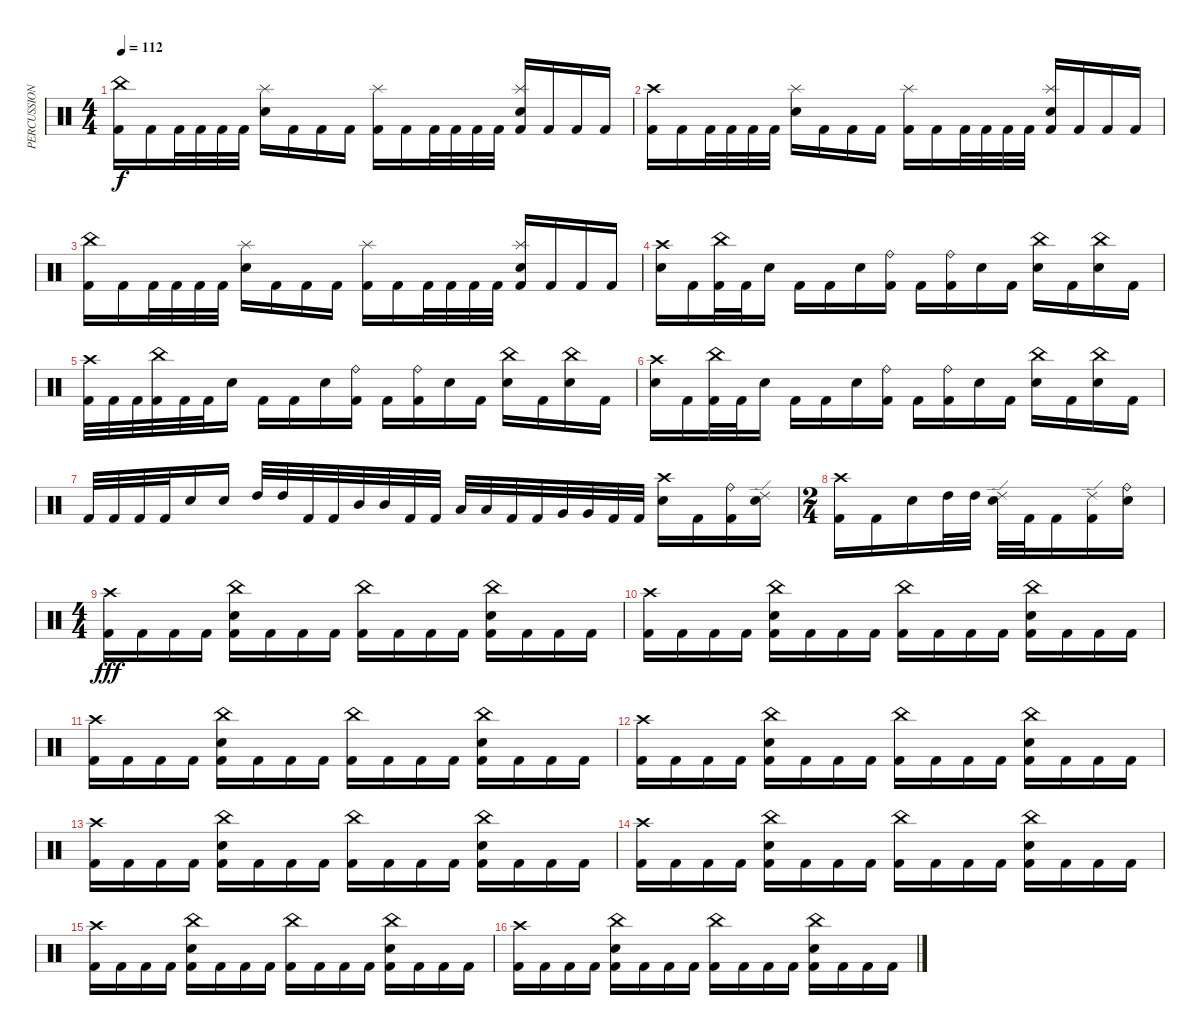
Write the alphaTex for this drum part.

\track ("PERCUSSION" "PERCUSSION") {instrument percussion}
\staff {score}
\articulation defaults
\ts (4 4)
\tempo 112
\clef neutral
\ks c
("China (hit)" "Kick (hit) 2").16{dy f} "Kick (hit) 2".16 "Kick (hit) 2".32 "Kick (hit) 2".32 "Kick (hit) 2".32 "Kick (hit) 2".32 ("Splash (hit)" "Electric Snare (hit)").16 "Kick (hit) 2".16 "Kick (hit) 2".16 "Kick (hit) 2".16 ("Splash (hit)" "Kick (hit) 2").16 "Kick (hit) 2".16 "Kick (hit) 2".32 "Kick (hit) 2".32 "Kick (hit) 2".32 "Kick (hit) 2".32 ("Splash (hit)" "Electric Snare (hit)" "Kick (hit) 2").16 "Kick (hit) 2".16 "Kick (hit) 2".16 "Kick (hit) 2".16 |
("Crash high (hit)" "Kick (hit) 2").16 "Kick (hit) 2".16 "Kick (hit) 2".32 "Kick (hit) 2".32 "Kick (hit) 2".32 "Kick (hit) 2".32 ("Splash (hit)" "Electric Snare (hit)").16 "Kick (hit) 2".16 "Kick (hit) 2".16 "Kick (hit) 2".16 ("Splash (hit)" "Kick (hit) 2").16 "Kick (hit) 2".16 "Kick (hit) 2".32 "Kick (hit) 2".32 "Kick (hit) 2".32 "Kick (hit) 2".32 ("Splash (hit)" "Electric Snare (hit)" "Kick (hit) 2").16 "Kick (hit) 2".16 "Kick (hit) 2".16 "Kick (hit) 2".16 |
("China (hit)" "Kick (hit) 2").16 "Kick (hit) 2".16 "Kick (hit) 2".32 "Kick (hit) 2".32 "Kick (hit) 2".32 "Kick (hit) 2".32 ("Splash (hit)" "Electric Snare (hit)").16 "Kick (hit) 2".16 "Kick (hit) 2".16 "Kick (hit) 2".16 ("Splash (hit)" "Kick (hit) 2").16 "Kick (hit) 2".16 "Kick (hit) 2".32 "Kick (hit) 2".32 "Kick (hit) 2".32 "Kick (hit) 2".32 ("Splash (hit)" "Electric Snare (hit)" "Kick (hit) 2").16 "Kick (hit) 2".16 "Kick (hit) 2".16 "Kick (hit) 2".16 |
("Crash high (hit)" "Electric Snare (hit)").16 "Kick (hit) 2".16 ("China (hit)" "Kick (hit) 2").32 "Kick (hit) 2".32 "Electric Snare (hit)".16 "Kick (hit) 2".16 "Kick (hit) 2".16 "Electric Snare (hit)".16 ("Ride (bell)" "Kick (hit) 2").16 "Kick (hit) 2".16 ("Ride (bell)" "Kick (hit) 2").16 "Electric Snare (hit)".16 "Kick (hit) 2".16 ("China (hit)" "Electric Snare (hit)").16 "Kick (hit) 2".16 ("China (hit)" "Electric Snare (hit)").16 "Kick (hit) 2".16 |
("Crash high (hit)" "Kick (hit) 2").32 "Kick (hit) 2".32 "Kick (hit) 2".32 ("China (hit)" "Kick (hit) 2").32 "Kick (hit) 2".32 "Kick (hit) 2".32 "Electric Snare (hit)".16 "Kick (hit) 2".16 "Kick (hit) 2".16 "Electric Snare (hit)".16 ("Ride (bell)" "Kick (hit) 2").16 "Kick (hit) 2".16 ("Ride (bell)" "Kick (hit) 2").16 "Electric Snare (hit)".16 "Kick (hit) 2".16 ("China (hit)" "Electric Snare (hit)").16 "Kick (hit) 2".16 ("China (hit)" "Electric Snare (hit)").16 "Kick (hit) 2".16 |
("Crash high (hit)" "Electric Snare (hit)").16 "Kick (hit) 2".16 ("China (hit)" "Kick (hit) 2").32 "Kick (hit) 2".32 "Electric Snare (hit)".16 "Kick (hit) 2".16 "Kick (hit) 2".16 "Electric Snare (hit)".16 ("Ride (bell)" "Kick (hit) 2").16 "Kick (hit) 2".16 ("Ride (bell)" "Kick (hit) 2").16 "Electric Snare (hit)".16 "Kick (hit) 2".16 ("China (hit)" "Electric Snare (hit)").16 "Kick (hit) 2".16 ("China (hit)" "Electric Snare (hit)").16 "Kick (hit) 2".16 |
"Kick (hit) 2".32 "Kick (hit) 2".32 "Kick (hit) 2".32 "Kick (hit) 2".32 "Electric Snare (hit)".16 "Electric Snare (hit)".16 "High Tom (hit)".32 "High Tom (hit)".32 "Kick (hit) 2".32 "Kick (hit) 2".32 "Mid Tom (hit)".32 "Mid Tom (hit)".32 "Kick (hit) 2".32 "Kick (hit) 2".32 "Low Tom (hit)".32 "Low Tom (hit)".32 "Kick (hit) 2".32 "Kick (hit) 2".32 "Very Low Tom (hit)".32 "Very Low Tom (hit)".32 "Kick (hit) 2".32 "Kick (hit) 2".32 ("Crash high (hit)" "Electric Snare (hit)").16 "Kick (hit) 2".16 ("Ride (bell)" "Kick (hit) 2").16 ("Ride (edge) 2" "Electric Snare (hit)").16 |
\ts (2 4)
("Crash high (hit)" "Kick (hit) 2").16 "Kick (hit) 2".16 "Electric Snare (hit)".16 "High Tom (hit)".32 "High Tom (hit)".32 ("Ride (edge) 2" "Electric Snare (hit)").32 "Kick (hit) 2".32 "Kick (hit) 2".16 ("Ride (edge) 2" "Kick (hit) 2").16 ("Ride (bell)" "Electric Snare (hit)").16 |
\ts (4 4)
("Crash high (hit)" "Kick (hit) 2").16{dy fff} "Kick (hit) 2".16 "Kick (hit) 2".16 "Kick (hit) 2".16 ("China (hit)" "Electric Snare (hit)" "Kick (hit) 2").16 "Kick (hit) 2".16 "Kick (hit) 2".16 "Kick (hit) 2".16 ("China (hit)" "Kick (hit) 2").16 "Kick (hit) 2".16 "Kick (hit) 2".16 "Kick (hit) 2".16 ("China (hit)" "Electric Snare (hit)" "Kick (hit) 2").16 "Kick (hit) 2".16 "Kick (hit) 2".16 "Kick (hit) 2".16 |
("Crash high (hit)" "Kick (hit) 2").16 "Kick (hit) 2".16 "Kick (hit) 2".16 "Kick (hit) 2".16 ("China (hit)" "Electric Snare (hit)" "Kick (hit) 2").16 "Kick (hit) 2".16 "Kick (hit) 2".16 "Kick (hit) 2".16 ("China (hit)" "Kick (hit) 2").16 "Kick (hit) 2".16 "Kick (hit) 2".16 "Kick (hit) 2".16 ("China (hit)" "Electric Snare (hit)" "Kick (hit) 2").16 "Kick (hit) 2".16 "Kick (hit) 2".16 "Kick (hit) 2".16 |
("Crash high (hit)" "Kick (hit) 2").16 "Kick (hit) 2".16 "Kick (hit) 2".16 "Kick (hit) 2".16 ("China (hit)" "Electric Snare (hit)" "Kick (hit) 2").16 "Kick (hit) 2".16 "Kick (hit) 2".16 "Kick (hit) 2".16 ("China (hit)" "Kick (hit) 2").16 "Kick (hit) 2".16 "Kick (hit) 2".16 "Kick (hit) 2".16 ("China (hit)" "Electric Snare (hit)" "Kick (hit) 2").16 "Kick (hit) 2".16 "Kick (hit) 2".16 "Kick (hit) 2".16 |
("Crash high (hit)" "Kick (hit) 2").16 "Kick (hit) 2".16 "Kick (hit) 2".16 "Kick (hit) 2".16 ("China (hit)" "Electric Snare (hit)" "Kick (hit) 2").16 "Kick (hit) 2".16 "Kick (hit) 2".16 "Kick (hit) 2".16 ("China (hit)" "Kick (hit) 2").16 "Kick (hit) 2".16 "Kick (hit) 2".16 "Kick (hit) 2".16 ("China (hit)" "Electric Snare (hit)" "Kick (hit) 2").16 "Kick (hit) 2".16 "Kick (hit) 2".16 "Kick (hit) 2".16 |
("Crash high (hit)" "Kick (hit) 2").16 "Kick (hit) 2".16 "Kick (hit) 2".16 "Kick (hit) 2".16 ("China (hit)" "Electric Snare (hit)" "Kick (hit) 2").16 "Kick (hit) 2".16 "Kick (hit) 2".16 "Kick (hit) 2".16 ("China (hit)" "Kick (hit) 2").16 "Kick (hit) 2".16 "Kick (hit) 2".16 "Kick (hit) 2".16 ("China (hit)" "Electric Snare (hit)" "Kick (hit) 2").16 "Kick (hit) 2".16 "Kick (hit) 2".16 "Kick (hit) 2".16 |
("Crash high (hit)" "Kick (hit) 2").16 "Kick (hit) 2".16 "Kick (hit) 2".16 "Kick (hit) 2".16 ("China (hit)" "Electric Snare (hit)" "Kick (hit) 2").16 "Kick (hit) 2".16 "Kick (hit) 2".16 "Kick (hit) 2".16 ("China (hit)" "Kick (hit) 2").16 "Kick (hit) 2".16 "Kick (hit) 2".16 "Kick (hit) 2".16 ("China (hit)" "Electric Snare (hit)" "Kick (hit) 2").16 "Kick (hit) 2".16 "Kick (hit) 2".16 "Kick (hit) 2".16 |
("Crash high (hit)" "Kick (hit) 2").16 "Kick (hit) 2".16 "Kick (hit) 2".16 "Kick (hit) 2".16 ("China (hit)" "Electric Snare (hit)" "Kick (hit) 2").16 "Kick (hit) 2".16 "Kick (hit) 2".16 "Kick (hit) 2".16 ("China (hit)" "Kick (hit) 2").16 "Kick (hit) 2".16 "Kick (hit) 2".16 "Kick (hit) 2".16 ("China (hit)" "Electric Snare (hit)" "Kick (hit) 2").16 "Kick (hit) 2".16 "Kick (hit) 2".16 "Kick (hit) 2".16 |
("Crash high (hit)" "Kick (hit) 2").16 "Kick (hit) 2".16 "Kick (hit) 2".16 "Kick (hit) 2".16 ("China (hit)" "Electric Snare (hit)" "Kick (hit) 2").16 "Kick (hit) 2".16 "Kick (hit) 2".16 "Kick (hit) 2".16 ("China (hit)" "Kick (hit) 2").16 "Kick (hit) 2".16 "Kick (hit) 2".16 "Kick (hit) 2".16 ("China (hit)" "Electric Snare (hit)" "Kick (hit) 2").16 "Kick (hit) 2".16 "Kick (hit) 2".16 "Kick (hit) 2".16
